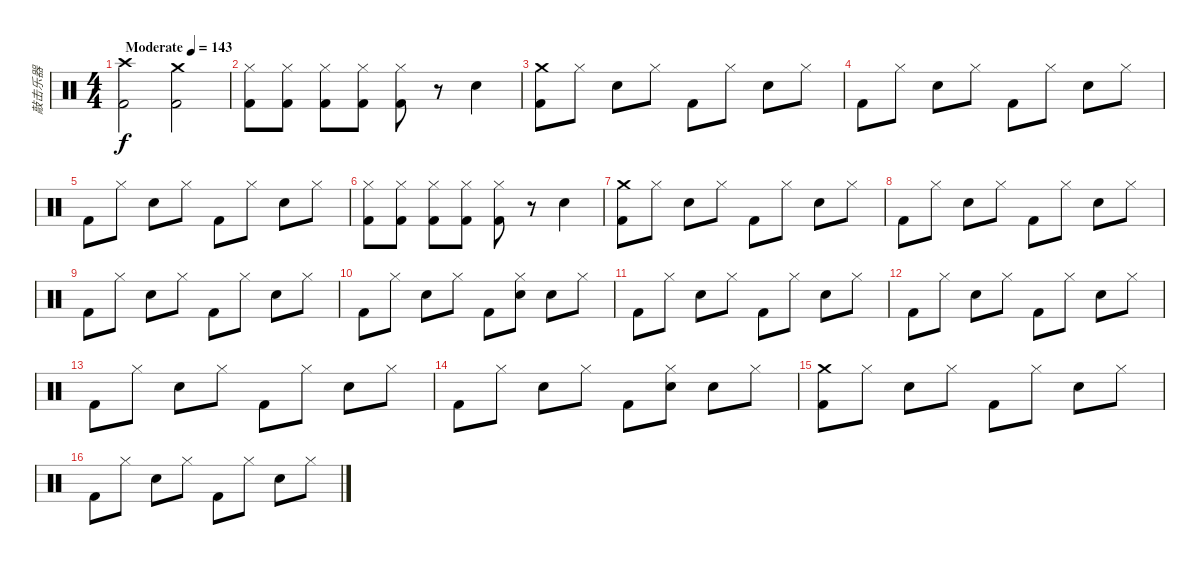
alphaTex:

\track ("敲击乐器" "敲击乐器") {instrument percussion}
\staff {score}
\articulation defaults
\ts (4 4)
\tempo (143 "Moderate")
\clef neutral
\ks c
("Crash high (hit)" "Kick (hit) 2").2{dy f} ("Crash medium (hit)" "Kick (hit) 2").2 |
("Hi-Hat (closed)" "Kick (hit) 2").8 ("Hi-Hat (closed)" "Kick (hit) 2").8 ("Hi-Hat (closed)" "Kick (hit) 2").8 ("Hi-Hat (closed)" "Kick (hit) 2").8 ("Hi-Hat (closed)" "Kick (hit) 2").8 r.8 "Snare (hit) 2".4 |
("Crash medium (hit)" "Kick (hit) 2").8 "Hi-Hat (closed)".8 "Snare (hit) 2".8 "Hi-Hat (closed)".8 "Kick (hit) 2".8 "Hi-Hat (closed)".8 "Snare (hit) 2".8 "Hi-Hat (closed)".8 |
"Kick (hit) 2".8 "Hi-Hat (closed)".8 "Snare (hit) 2".8 "Hi-Hat (closed)".8 "Kick (hit) 2".8 "Hi-Hat (closed)".8 "Snare (hit) 2".8 "Hi-Hat (closed)".8 |
"Kick (hit) 2".8 "Hi-Hat (closed)".8 "Snare (hit) 2".8 "Hi-Hat (closed)".8 "Kick (hit) 2".8 "Hi-Hat (closed)".8 "Snare (hit) 2".8 "Hi-Hat (closed)".8 |
("Hi-Hat (closed)" "Kick (hit) 2").8 ("Hi-Hat (closed)" "Kick (hit) 2").8 ("Hi-Hat (closed)" "Kick (hit) 2").8 ("Hi-Hat (closed)" "Kick (hit) 2").8 ("Hi-Hat (closed)" "Kick (hit) 2").8 r.8 "Snare (hit) 2".4 |
("Crash medium (hit)" "Kick (hit) 2").8 "Hi-Hat (closed)".8 "Snare (hit) 2".8 "Hi-Hat (closed)".8 "Kick (hit) 2".8 "Hi-Hat (closed)".8 "Snare (hit) 2".8 "Hi-Hat (closed)".8 |
"Kick (hit) 2".8 "Hi-Hat (closed)".8 "Snare (hit) 2".8 "Hi-Hat (closed)".8 "Kick (hit) 2".8 "Hi-Hat (closed)".8 "Snare (hit) 2".8 "Hi-Hat (closed)".8 |
"Kick (hit) 2".8 "Hi-Hat (closed)".8 "Snare (hit) 2".8 "Hi-Hat (closed)".8 "Kick (hit) 2".8 "Hi-Hat (closed)".8 "Snare (hit) 2".8 "Hi-Hat (closed)".8 |
"Kick (hit) 2".8 "Hi-Hat (closed)".8 "Snare (hit) 2".8 "Hi-Hat (closed)".8 "Kick (hit) 2".8 ("Hi-Hat (closed)" "Snare (hit) 2").8 "Snare (hit) 2".8 "Hi-Hat (closed)".8 |
"Kick (hit) 2".8 "Hi-Hat (closed)".8 "Snare (hit) 2".8 "Hi-Hat (closed)".8 "Kick (hit) 2".8 "Hi-Hat (closed)".8 "Snare (hit) 2".8 "Hi-Hat (closed)".8 |
"Kick (hit) 2".8 "Hi-Hat (closed)".8 "Snare (hit) 2".8 "Hi-Hat (closed)".8 "Kick (hit) 2".8 "Hi-Hat (closed)".8 "Snare (hit) 2".8 "Hi-Hat (closed)".8 |
"Kick (hit) 2".8 "Hi-Hat (closed)".8 "Snare (hit) 2".8 "Hi-Hat (closed)".8 "Kick (hit) 2".8 "Hi-Hat (closed)".8 "Snare (hit) 2".8 "Hi-Hat (closed)".8 |
"Kick (hit) 2".8 "Hi-Hat (closed)".8 "Snare (hit) 2".8 "Hi-Hat (closed)".8 "Kick (hit) 2".8 ("Hi-Hat (closed)" "Snare (hit) 2").8 "Snare (hit) 2".8 "Hi-Hat (closed)".8 |
("Crash medium (hit)" "Kick (hit) 2").8 "Hi-Hat (closed)".8 "Snare (hit) 2".8 "Hi-Hat (closed)".8 "Kick (hit) 2".8 "Hi-Hat (closed)".8 "Snare (hit) 2".8 "Hi-Hat (closed)".8 |
"Kick (hit) 2".8 "Hi-Hat (closed)".8 "Snare (hit) 2".8 "Hi-Hat (closed)".8 "Kick (hit) 2".8 "Hi-Hat (closed)".8 "Snare (hit) 2".8 "Hi-Hat (closed)".8
